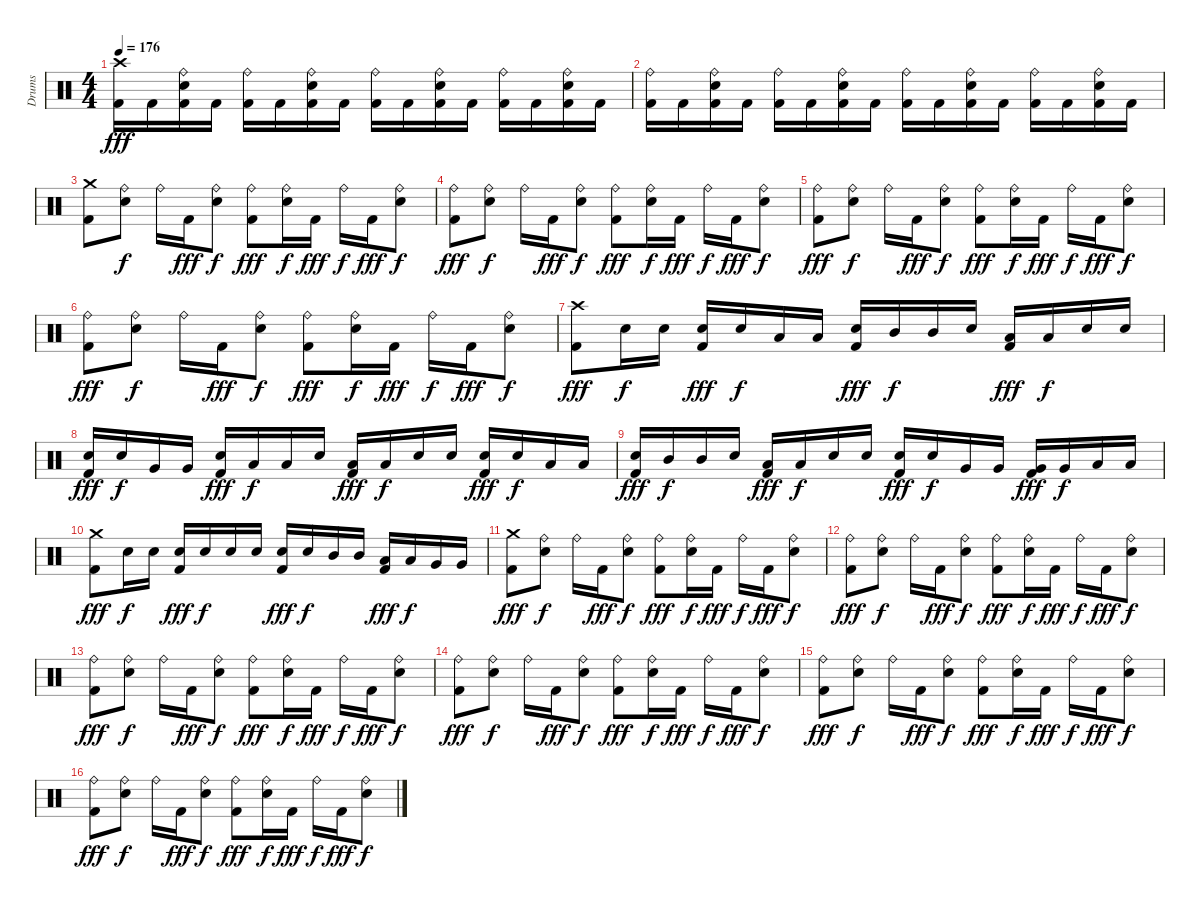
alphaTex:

\track ("Drums" "Drums") {instrument percussion}
\staff {score}
\articulation defaults
\ts (4 4)
\tempo 176
\clef neutral
\ks c
("Crash high (hit)" "Kick (hit) 2").16{dy fff} "Kick (hit) 2".16 ("Ride (bell)" "Snare (hit) 2" "Kick (hit) 2").16 "Kick (hit) 2".16 ("Ride (bell)" "Kick (hit) 2").16 "Kick (hit) 2".16 ("Ride (bell)" "Snare (hit) 2" "Kick (hit) 2").16 "Kick (hit) 2".16 ("Ride (bell)" "Kick (hit) 2").16 "Kick (hit) 2".16 ("Ride (bell)" "Snare (hit) 2" "Kick (hit) 2").16 "Kick (hit) 2".16 ("Ride (bell)" "Kick (hit) 2").16 "Kick (hit) 2".16 ("Ride (bell)" "Snare (hit) 2" "Kick (hit) 2").16 "Kick (hit) 2".16 |
("Ride (bell)" "Kick (hit) 2").16 "Kick (hit) 2".16 ("Ride (bell)" "Snare (hit) 2" "Kick (hit) 2").16 "Kick (hit) 2".16 ("Ride (bell)" "Kick (hit) 2").16 "Kick (hit) 2".16 ("Ride (bell)" "Snare (hit) 2" "Kick (hit) 2").16 "Kick (hit) 2".16 ("Ride (bell)" "Kick (hit) 2").16 "Kick (hit) 2".16 ("Ride (bell)" "Snare (hit) 2" "Kick (hit) 2").16 "Kick (hit) 2".16 ("Ride (bell)" "Kick (hit) 2").16 "Kick (hit) 2".16 ("Ride (bell)" "Snare (hit) 2" "Kick (hit) 2").16 "Kick (hit) 2".16 |
("Crash medium (hit)" "Kick (hit) 2").8 ("Ride (bell)" "Snare (hit) 2").8{dy f} "Ride (bell)".16 "Kick (hit) 2".16{dy fff} ("Ride (bell)" "Snare (hit) 2").8{dy f} ("Ride (bell)" "Kick (hit) 2").8{dy fff} ("Ride (bell)" "Snare (hit) 2").16{dy f} "Kick (hit) 2".16{dy fff} "Ride (bell)".16{dy f} "Kick (hit) 2".16{dy fff} ("Ride (bell)" "Snare (hit) 2").8{dy f} |
("Ride (bell)" "Kick (hit) 2").8{dy fff} ("Ride (bell)" "Snare (hit) 2").8{dy f} "Ride (bell)".16 "Kick (hit) 2".16{dy fff} ("Ride (bell)" "Snare (hit) 2").8{dy f} ("Ride (bell)" "Kick (hit) 2").8{dy fff} ("Ride (bell)" "Snare (hit) 2").16{dy f} "Kick (hit) 2".16{dy fff} "Ride (bell)".16{dy f} "Kick (hit) 2".16{dy fff} ("Ride (bell)" "Snare (hit) 2").8{dy f} |
("Ride (bell)" "Kick (hit) 2").8{dy fff} ("Ride (bell)" "Snare (hit) 2").8{dy f} "Ride (bell)".16 "Kick (hit) 2".16{dy fff} ("Ride (bell)" "Snare (hit) 2").8{dy f} ("Ride (bell)" "Kick (hit) 2").8{dy fff} ("Ride (bell)" "Snare (hit) 2").16{dy f} "Kick (hit) 2".16{dy fff} "Ride (bell)".16{dy f} "Kick (hit) 2".16{dy fff} ("Ride (bell)" "Snare (hit) 2").8{dy f} |
("Ride (bell)" "Kick (hit) 2").8{dy fff} ("Ride (bell)" "Snare (hit) 2").8{dy f} "Ride (bell)".16 "Kick (hit) 2".16{dy fff} ("Ride (bell)" "Snare (hit) 2").8{dy f} ("Ride (bell)" "Kick (hit) 2").8{dy fff} ("Ride (bell)" "Snare (hit) 2").16{dy f} "Kick (hit) 2".16{dy fff} "Ride (bell)".16{dy f} "Kick (hit) 2".16{dy fff} ("Ride (bell)" "Snare (hit) 2").8{dy f} |
("Crash high (hit)" "Kick (hit) 2").8{dy fff} "Snare (hit) 2".16{dy f} "Snare (hit) 2".16 ("Snare (hit) 2" "Kick (hit) 2").16{dy fff} "Snare (hit) 2".16{dy f} "Low Tom (hit)".16 "Low Tom (hit)".16 ("Snare (hit) 2" "Kick (hit) 2").16{dy fff} "Mid Tom (hit)".16{dy f} "Mid Tom (hit)".16 "Snare (hit) 2".16 ("Low Tom (hit)" "Kick (hit) 2").16{dy fff} "Low Tom (hit)".16{dy f} "Snare (hit) 2".16 "Snare (hit) 2".16 |
("Snare (hit) 2" "Kick (hit) 2").16{dy fff} "Snare (hit) 2".16{dy f} "Very Low Tom (hit)".16 "Very Low Tom (hit)".16 ("Snare (hit) 2" "Kick (hit) 2").16{dy fff} "Low Floor Tom (hit)".16{dy f} "Low Floor Tom (hit)".16 "Snare (hit) 2".16 ("Low Floor Tom (hit)" "Kick (hit) 2").16{dy fff} "Low Floor Tom (hit)".16{dy f} "Snare (hit) 2".16 "Snare (hit) 2".16 ("Snare (hit) 2" "Kick (hit) 2").16{dy fff} "Snare (hit) 2".16{dy f} "Low Floor Tom (hit)".16 "Low Floor Tom (hit)".16 |
("Snare (hit) 2" "Kick (hit) 2").16{dy fff} "Mid Tom (hit)".16{dy f} "Mid Tom (hit)".16 "Snare (hit) 2".16 ("Low Tom (hit)" "Kick (hit) 2").16{dy fff} "Low Tom (hit)".16{dy f} "Snare (hit) 2".16 "Snare (hit) 2".16 ("Snare (hit) 2" "Kick (hit) 2").16{dy fff} "Snare (hit) 2".16{dy f} "Very Low Tom (hit)".16 "Very Low Tom (hit)".16 ("Very Low Tom (hit)" "Kick (hit) 2").16{dy fff} "Very Low Tom (hit)".16{dy f} "Low Floor Tom (hit)".16 "Low Floor Tom (hit)".16 |
("Crash medium (hit)" "Kick (hit) 2").8{dy fff} "Snare (hit) 2".16{dy f} "Snare (hit) 2".16 ("Snare (hit) 2" "Kick (hit) 2").16{dy fff} "Snare (hit) 2".16{dy f} "Snare (hit) 2".16 "Snare (hit) 2".16 ("Snare (hit) 2" "Kick (hit) 2").16{dy fff} "Snare (hit) 2".16{dy f} "Mid Tom (hit)".16 "Mid Tom (hit)".16 ("Low Tom (hit)" "Kick (hit) 2").16{dy fff} "Low Tom (hit)".16{dy f} "Very Low Tom (hit)".16 "Very Low Tom (hit)".16 |
("Crash medium (hit)" "Kick (hit) 2").8{dy fff} ("Ride (bell)" "Snare (hit) 2").8{dy f} "Ride (bell)".16 "Kick (hit) 2".16{dy fff} ("Ride (bell)" "Snare (hit) 2").8{dy f} ("Ride (bell)" "Kick (hit) 2").8{dy fff} ("Ride (bell)" "Snare (hit) 2").16{dy f} "Kick (hit) 2".16{dy fff} "Ride (bell)".16{dy f} "Kick (hit) 2".16{dy fff} ("Ride (bell)" "Snare (hit) 2").8{dy f} |
("Ride (bell)" "Kick (hit) 2").8{dy fff} ("Ride (bell)" "Snare (hit) 2").8{dy f} "Ride (bell)".16 "Kick (hit) 2".16{dy fff} ("Ride (bell)" "Snare (hit) 2").8{dy f} ("Ride (bell)" "Kick (hit) 2").8{dy fff} ("Ride (bell)" "Snare (hit) 2").16{dy f} "Kick (hit) 2".16{dy fff} "Ride (bell)".16{dy f} "Kick (hit) 2".16{dy fff} ("Ride (bell)" "Snare (hit) 2").8{dy f} |
("Ride (bell)" "Kick (hit) 2").8{dy fff} ("Ride (bell)" "Snare (hit) 2").8{dy f} "Ride (bell)".16 "Kick (hit) 2".16{dy fff} ("Ride (bell)" "Snare (hit) 2").8{dy f} ("Ride (bell)" "Kick (hit) 2").8{dy fff} ("Ride (bell)" "Snare (hit) 2").16{dy f} "Kick (hit) 2".16{dy fff} "Ride (bell)".16{dy f} "Kick (hit) 2".16{dy fff} ("Ride (bell)" "Snare (hit) 2").8{dy f} |
("Ride (bell)" "Kick (hit) 2").8{dy fff} ("Ride (bell)" "Snare (hit) 2").8{dy f} "Ride (bell)".16 "Kick (hit) 2".16{dy fff} ("Ride (bell)" "Snare (hit) 2").8{dy f} ("Ride (bell)" "Kick (hit) 2").8{dy fff} ("Ride (bell)" "Snare (hit) 2").16{dy f} "Kick (hit) 2".16{dy fff} "Ride (bell)".16{dy f} "Kick (hit) 2".16{dy fff} ("Ride (bell)" "Snare (hit) 2").8{dy f} |
("Ride (bell)" "Kick (hit) 2").8{dy fff} ("Ride (bell)" "Snare (hit) 2").8{dy f} "Ride (bell)".16 "Kick (hit) 2".16{dy fff} ("Ride (bell)" "Snare (hit) 2").8{dy f} ("Ride (bell)" "Kick (hit) 2").8{dy fff} ("Ride (bell)" "Snare (hit) 2").16{dy f} "Kick (hit) 2".16{dy fff} "Ride (bell)".16{dy f} "Kick (hit) 2".16{dy fff} ("Ride (bell)" "Snare (hit) 2").8{dy f} |
("Ride (bell)" "Kick (hit) 2").8{dy fff} ("Ride (bell)" "Snare (hit) 2").8{dy f} "Ride (bell)".16 "Kick (hit) 2".16{dy fff} ("Ride (bell)" "Snare (hit) 2").8{dy f} ("Ride (bell)" "Kick (hit) 2").8{dy fff} ("Ride (bell)" "Snare (hit) 2").16{dy f} "Kick (hit) 2".16{dy fff} "Ride (bell)".16{dy f} "Kick (hit) 2".16{dy fff} ("Ride (bell)" "Snare (hit) 2").8{dy f}
